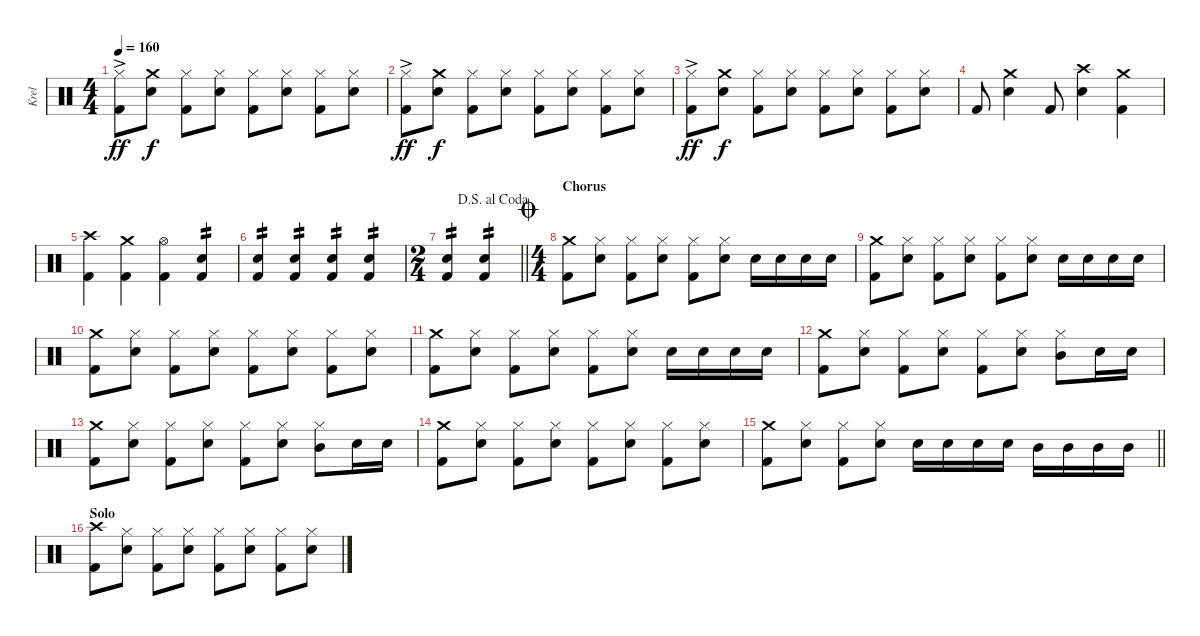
\track ("Krel" "Krel") {instrument percussion}
\staff {score}
\articulation defaults
\ts (4 4)
\tempo 160
\clef neutral
\ks c
("Hi-Hat (closed)" "Kick (hit) 2"{ac}).8{dy ff} ("Crash medium (hit)" "Snare (hit) 2").8{dy f} ("Hi-Hat (closed)" "Kick (hit) 2").8 ("Hi-Hat (closed)" "Snare (hit) 2").8 ("Hi-Hat (closed)" "Kick (hit) 2").8 ("Hi-Hat (closed)" "Snare (hit) 2").8 ("Hi-Hat (closed)" "Kick (hit) 2").8 ("Hi-Hat (closed)" "Snare (hit) 2").8 |
("Hi-Hat (closed)" "Kick (hit) 2"{ac}).8{dy ff} ("Crash medium (hit)" "Snare (hit) 2").8{dy f} ("Hi-Hat (closed)" "Kick (hit) 2").8 ("Hi-Hat (closed)" "Snare (hit) 2").8 ("Hi-Hat (closed)" "Kick (hit) 2").8 ("Hi-Hat (closed)" "Snare (hit) 2").8 ("Hi-Hat (closed)" "Kick (hit) 2").8 ("Hi-Hat (closed)" "Snare (hit) 2").8 |
("Hi-Hat (closed)" "Kick (hit) 2"{ac}).8{dy ff} ("Crash medium (hit)" "Snare (hit) 2").8{dy f} ("Hi-Hat (closed)" "Kick (hit) 2").8 ("Hi-Hat (closed)" "Snare (hit) 2").8 ("Hi-Hat (closed)" "Kick (hit) 2").8 ("Hi-Hat (closed)" "Snare (hit) 2").8 ("Hi-Hat (closed)" "Kick (hit) 2").8 ("Hi-Hat (closed)" "Snare (hit) 2").8 |
"Kick (hit) 2".8 ("Crash medium (hit)" "Snare (hit) 2").4 "Kick (hit) 2".8 ("Crash high (hit)" "Snare (hit) 2").4 ("Crash medium (hit)" "Kick (hit) 2").4 |
("Crash high (hit)" "Kick (hit) 2").4 ("Crash medium (hit)" "Kick (hit) 2").4 ("Hi-Hat (open)" "Kick (hit) 2").4 ("Snare (hit) 2" "Kick (hit) 2").4{tp 2 volume 6} |
("Snare (hit) 2" "Kick (hit) 2").4{tp 2 volume 13} ("Snare (hit) 2" "Kick (hit) 2").4{tp 2} ("Snare (hit) 2" "Kick (hit) 2").4{tp 2} ("Snare (hit) 2" "Kick (hit) 2").4{tp 2} |
\ts (2 4)
\jump dalsegnoalcoda
\barLineRight lightlight
("Snare (hit) 2" "Kick (hit) 2").4{tp 2} ("Snare (hit) 2" "Kick (hit) 2").4{tp 2} |
\ts (4 4)
\section ("" "Chorus")
\jump coda
("Crash medium (hit)" "Kick (hit) 2").8 ("Hi-Hat (closed)" "Snare (hit) 2").8 ("Hi-Hat (closed)" "Kick (hit) 2").8 ("Hi-Hat (closed)" "Snare (hit) 2").8 ("Hi-Hat (closed)" "Kick (hit) 2").8 ("Hi-Hat (closed)" "Snare (hit) 2").8 "Snare (hit) 2".16 "Snare (hit) 2".16 "Snare (hit) 2".16 "Snare (hit) 2".16 |
("Crash medium (hit)" "Kick (hit) 2").8 ("Hi-Hat (closed)" "Snare (hit) 2").8 ("Hi-Hat (closed)" "Kick (hit) 2").8 ("Hi-Hat (closed)" "Snare (hit) 2").8 ("Hi-Hat (closed)" "Kick (hit) 2").8 ("Hi-Hat (closed)" "Snare (hit) 2").8 "Snare (hit) 2".16 "Snare (hit) 2".16 "Snare (hit) 2".16 "Snare (hit) 2".16 |
("Crash medium (hit)" "Kick (hit) 2").8 ("Hi-Hat (closed)" "Snare (hit) 2").8 ("Hi-Hat (closed)" "Kick (hit) 2").8 ("Hi-Hat (closed)" "Snare (hit) 2").8 ("Hi-Hat (closed)" "Kick (hit) 2").8 ("Hi-Hat (closed)" "Snare (hit) 2").8 ("Hi-Hat (closed)" "Kick (hit) 2").8 ("Hi-Hat (closed)" "Snare (hit) 2").8 |
("Crash medium (hit)" "Kick (hit) 2").8 ("Hi-Hat (closed)" "Snare (hit) 2").8 ("Hi-Hat (closed)" "Kick (hit) 2").8 ("Hi-Hat (closed)" "Snare (hit) 2").8 ("Hi-Hat (closed)" "Kick (hit) 2").8 ("Hi-Hat (closed)" "Snare (hit) 2").8 "Snare (hit) 2".16 "Snare (hit) 2".16 "Snare (hit) 2".16 "Snare (hit) 2".16 |
("Crash medium (hit)" "Kick (hit) 2").8 ("Hi-Hat (closed)" "Snare (hit) 2").8 ("Hi-Hat (closed)" "Kick (hit) 2").8 ("Hi-Hat (closed)" "Snare (hit) 2").8 ("Hi-Hat (closed)" "Kick (hit) 2").8 ("Hi-Hat (closed)" "Snare (hit) 2").8 ("Hi-Hat (closed)" "Mid Tom (hit)").8 "Snare (hit) 2".16 "Snare (hit) 2".16 |
("Crash medium (hit)" "Kick (hit) 2").8 ("Hi-Hat (closed)" "Snare (hit) 2").8 ("Hi-Hat (closed)" "Kick (hit) 2").8 ("Hi-Hat (closed)" "Snare (hit) 2").8 ("Hi-Hat (closed)" "Kick (hit) 2").8 ("Hi-Hat (closed)" "Snare (hit) 2").8 ("Hi-Hat (closed)" "Mid Tom (hit)").8 "Snare (hit) 2".16 "Snare (hit) 2".16 |
("Crash medium (hit)" "Kick (hit) 2").8 ("Hi-Hat (closed)" "Snare (hit) 2").8 ("Hi-Hat (closed)" "Kick (hit) 2").8 ("Hi-Hat (closed)" "Snare (hit) 2").8 ("Hi-Hat (closed)" "Kick (hit) 2").8 ("Hi-Hat (closed)" "Snare (hit) 2").8 ("Hi-Hat (closed)" "Kick (hit) 2").8 ("Hi-Hat (closed)" "Snare (hit) 2").8 |
\barLineRight lightlight
("Crash medium (hit)" "Kick (hit) 2").8 ("Hi-Hat (closed)" "Snare (hit) 2").8 ("Hi-Hat (closed)" "Kick (hit) 2").8 ("Hi-Hat (closed)" "Snare (hit) 2").8 "Snare (hit) 2".16 "Snare (hit) 2".16 "Snare (hit) 2".16 "Snare (hit) 2".16 "Mid Tom (hit)".16 "Mid Tom (hit)".16 "Mid Tom (hit)".16 "Mid Tom (hit)".16 |
\section ("" "Solo")
("Crash high (hit)" "Kick (hit) 2").8 ("Hi-Hat (closed)" "Snare (hit) 2").8 ("Hi-Hat (closed)" "Kick (hit) 2").8 ("Hi-Hat (closed)" "Snare (hit) 2").8 ("Hi-Hat (closed)" "Kick (hit) 2").8 ("Hi-Hat (closed)" "Snare (hit) 2").8 ("Hi-Hat (closed)" "Kick (hit) 2").8 ("Hi-Hat (closed)" "Snare (hit) 2").8
